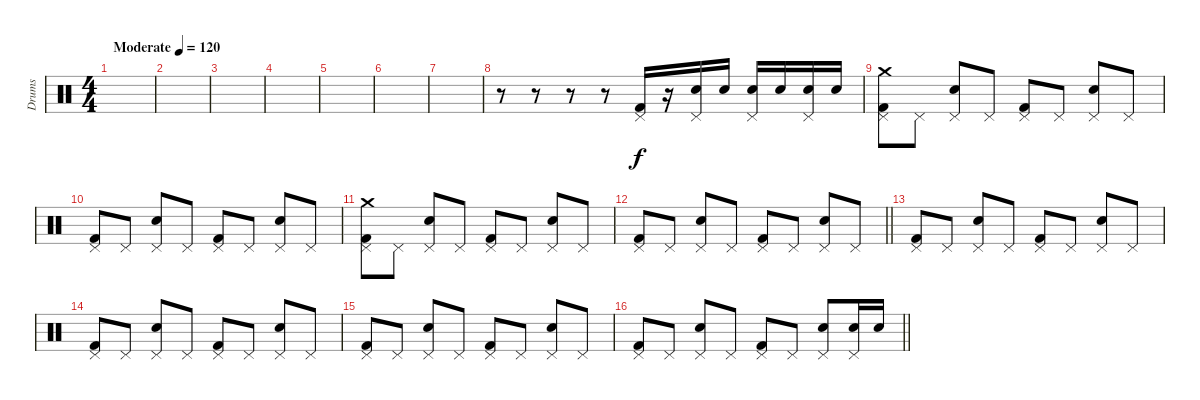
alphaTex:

\track ("Drums" "Drums") {instrument percussion}
\staff {score}
\articulation defaults
\ts (4 4)
\tempo (120 "Moderate")
\clef neutral
\ks c
|
|
|
|
|
|
|
r.8 r.8 r.8 r.8 ("Kick (hit) 2" "Pedal Hi-Hat (hit)").16 r.16 ("Snare (hit) 2" "Pedal Hi-Hat (hit)").16 "Snare (hit) 2".16 ("Snare (hit) 2" "Pedal Hi-Hat (hit)").16 "Snare (hit) 2".16 ("Snare (hit) 2" "Pedal Hi-Hat (hit)").16 "Snare (hit) 2".16 |
("Kick (hit) 2" "Pedal Hi-Hat (hit)" "Crash medium (hit)").8 "Pedal Hi-Hat (hit)".8 ("Snare (hit) 2" "Pedal Hi-Hat (hit)").8 "Pedal Hi-Hat (hit)".8 ("Kick (hit) 2" "Pedal Hi-Hat (hit)").8 "Pedal Hi-Hat (hit)".8 ("Snare (hit) 2" "Pedal Hi-Hat (hit)").8 "Pedal Hi-Hat (hit)".8 |
("Kick (hit) 2" "Pedal Hi-Hat (hit)").8 "Pedal Hi-Hat (hit)".8 ("Snare (hit) 2" "Pedal Hi-Hat (hit)").8 "Pedal Hi-Hat (hit)".8 ("Kick (hit) 2" "Pedal Hi-Hat (hit)").8 "Pedal Hi-Hat (hit)".8 ("Snare (hit) 2" "Pedal Hi-Hat (hit)").8 "Pedal Hi-Hat (hit)".8 |
("Kick (hit) 2" "Pedal Hi-Hat (hit)" "Crash medium (hit)").8 "Pedal Hi-Hat (hit)".8 ("Snare (hit) 2" "Pedal Hi-Hat (hit)").8 "Pedal Hi-Hat (hit)".8 ("Kick (hit) 2" "Pedal Hi-Hat (hit)").8 "Pedal Hi-Hat (hit)".8 ("Snare (hit) 2" "Pedal Hi-Hat (hit)").8 "Pedal Hi-Hat (hit)".8 |
\barLineRight lightlight
("Kick (hit) 2" "Pedal Hi-Hat (hit)").8 "Pedal Hi-Hat (hit)".8 ("Snare (hit) 2" "Pedal Hi-Hat (hit)").8 "Pedal Hi-Hat (hit)".8 ("Kick (hit) 2" "Pedal Hi-Hat (hit)").8 "Pedal Hi-Hat (hit)".8 ("Snare (hit) 2" "Pedal Hi-Hat (hit)").8 "Pedal Hi-Hat (hit)".8 |
("Kick (hit) 2" "Pedal Hi-Hat (hit)").8 "Pedal Hi-Hat (hit)".8 ("Snare (hit) 2" "Pedal Hi-Hat (hit)").8 "Pedal Hi-Hat (hit)".8 ("Kick (hit) 2" "Pedal Hi-Hat (hit)").8 "Pedal Hi-Hat (hit)".8 ("Snare (hit) 2" "Pedal Hi-Hat (hit)").8 "Pedal Hi-Hat (hit)".8 |
("Kick (hit) 2" "Pedal Hi-Hat (hit)").8 "Pedal Hi-Hat (hit)".8 ("Snare (hit) 2" "Pedal Hi-Hat (hit)").8 "Pedal Hi-Hat (hit)".8 ("Kick (hit) 2" "Pedal Hi-Hat (hit)").8 "Pedal Hi-Hat (hit)".8 ("Snare (hit) 2" "Pedal Hi-Hat (hit)").8 "Pedal Hi-Hat (hit)".8 |
("Kick (hit) 2" "Pedal Hi-Hat (hit)").8 "Pedal Hi-Hat (hit)".8 ("Snare (hit) 2" "Pedal Hi-Hat (hit)").8 "Pedal Hi-Hat (hit)".8 ("Kick (hit) 2" "Pedal Hi-Hat (hit)").8 "Pedal Hi-Hat (hit)".8 ("Snare (hit) 2" "Pedal Hi-Hat (hit)").8 "Pedal Hi-Hat (hit)".8 |
\barLineRight lightlight
("Kick (hit) 2" "Pedal Hi-Hat (hit)").8 "Pedal Hi-Hat (hit)".8 ("Snare (hit) 2" "Pedal Hi-Hat (hit)").8 "Pedal Hi-Hat (hit)".8 ("Kick (hit) 2" "Pedal Hi-Hat (hit)").8 "Pedal Hi-Hat (hit)".8 ("Snare (hit) 2" "Pedal Hi-Hat (hit)").8 ("Snare (hit) 2" "Pedal Hi-Hat (hit)").16 "Snare (hit) 2".16
